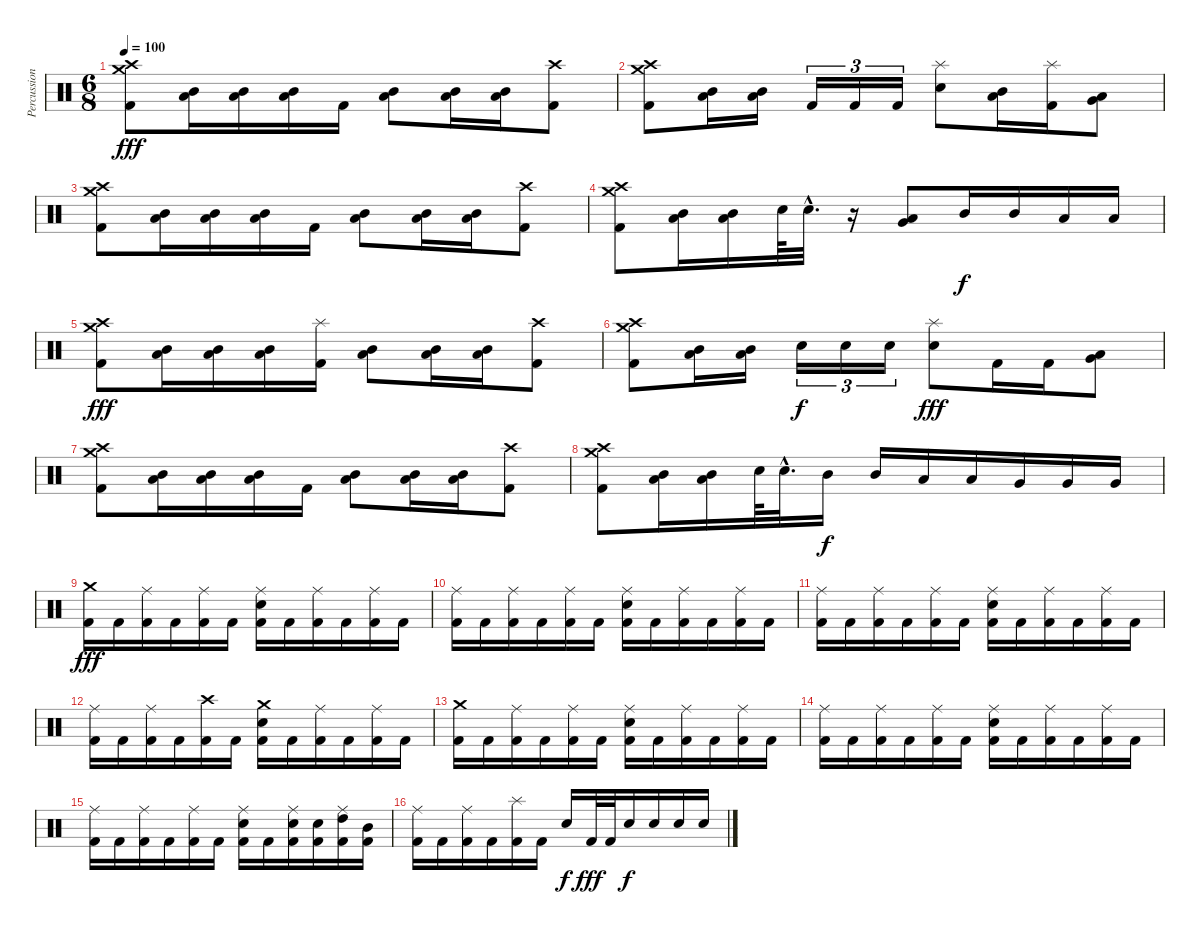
\track ("Percussion" "Percussion") {instrument percussion}
\staff {score}
\articulation defaults
\ts (6 8)
\tempo 100
\clef neutral
\ks c
("Crash medium (hit)" "Kick (hit) 2" "Crash high (hit)").8{dy fff} ("Mid Tom (hit)" "Low Floor Tom (hit)").16 ("Mid Tom (hit)" "Low Floor Tom (hit)").16 ("Mid Tom (hit)" "Low Floor Tom (hit)").16 "Kick (hit) 2".16 ("Mid Tom (hit)" "Low Floor Tom (hit)").8 ("Mid Tom (hit)" "Low Floor Tom (hit)").16 ("Mid Tom (hit)" "Low Floor Tom (hit)").16 ("Crash high (hit)" "Kick (hit) 2").8 |
("Crash medium (hit)" "Kick (hit) 2" "Crash high (hit)").8 ("Mid Tom (hit)" "Low Floor Tom (hit)").16 ("Mid Tom (hit)" "Low Floor Tom (hit)").16 "Kick (hit) 2".16{tu (3 2)} "Kick (hit) 2".16{tu (3 2)} "Kick (hit) 2".16{tu (3 2)} ("Splash (hit)" "Electric Snare (hit)").8 ("Mid Tom (hit)" "Low Floor Tom (hit)").16 ("Splash (hit)" "Kick (hit) 2").16 ("Very Low Tom (hit)" "Low Tom (hit)").8 |
("Crash medium (hit)" "Kick (hit) 2" "Crash high (hit)").8 ("Mid Tom (hit)" "Low Floor Tom (hit)").16 ("Mid Tom (hit)" "Low Floor Tom (hit)").16 ("Mid Tom (hit)" "Low Floor Tom (hit)").16 "Kick (hit) 2".16 ("Mid Tom (hit)" "Low Floor Tom (hit)").8 ("Mid Tom (hit)" "Low Floor Tom (hit)").16 ("Mid Tom (hit)" "Low Floor Tom (hit)").16 ("Crash high (hit)" "Kick (hit) 2").8 |
("Crash medium (hit)" "Kick (hit) 2" "Crash high (hit)").8 ("Mid Tom (hit)" "Low Floor Tom (hit)").16 ("Mid Tom (hit)" "Low Floor Tom (hit)").16 "Electric Snare (hit)".64 "Electric Snare (hit)"{hac}.32{d} r.16 ("Very Low Tom (hit)" "Low Tom (hit)").8 "Mid Tom (hit)".16{dy f} "Mid Tom (hit)".16 "Low Tom (hit)".16 "Low Tom (hit)".16 |
("Crash medium (hit)" "Kick (hit) 2" "Crash high (hit)").8{dy fff} ("Mid Tom (hit)" "Low Floor Tom (hit)").16 ("Mid Tom (hit)" "Low Floor Tom (hit)").16 ("Mid Tom (hit)" "Low Floor Tom (hit)").16 ("Splash (hit)" "Kick (hit) 2").16 ("Mid Tom (hit)" "Low Floor Tom (hit)").8 ("Mid Tom (hit)" "Low Floor Tom (hit)").16 ("Mid Tom (hit)" "Low Floor Tom (hit)").16 ("Crash high (hit)" "Kick (hit) 2").8 |
("Crash medium (hit)" "Kick (hit) 2" "Crash high (hit)").8 ("Mid Tom (hit)" "Low Floor Tom (hit)").16 ("Mid Tom (hit)" "Low Floor Tom (hit)").16 "Electric Snare (hit)".16{tu (3 2) dy f} "Electric Snare (hit)".16{tu (3 2)} "Electric Snare (hit)".16{tu (3 2)} ("Splash (hit)" "Electric Snare (hit)").8{dy fff} "Kick (hit) 2".16 "Kick (hit) 2".16 ("Very Low Tom (hit)" "Low Tom (hit)").8 |
("Crash medium (hit)" "Kick (hit) 2" "Crash high (hit)").8 ("Mid Tom (hit)" "Low Floor Tom (hit)").16 ("Mid Tom (hit)" "Low Floor Tom (hit)").16 ("Mid Tom (hit)" "Low Floor Tom (hit)").16 "Kick (hit) 2".16 ("Mid Tom (hit)" "Low Floor Tom (hit)").8 ("Mid Tom (hit)" "Low Floor Tom (hit)").16 ("Mid Tom (hit)" "Low Floor Tom (hit)").16 ("Crash high (hit)" "Kick (hit) 2").8 |
("Crash medium (hit)" "Kick (hit) 2" "Crash high (hit)").8 ("Mid Tom (hit)" "Low Floor Tom (hit)").16 ("Mid Tom (hit)" "Low Floor Tom (hit)").16 "Electric Snare (hit)".64 "Electric Snare (hit)"{hac}.32{d} "Mid Tom (hit)".16{dy f} "Mid Tom (hit)".16 "Low Tom (hit)".16 "Low Tom (hit)".16 "Very Low Tom (hit)".16 "Very Low Tom (hit)".16 "Very Low Tom (hit)".16 |
("Crash medium (hit)" "Kick (hit) 2").16{dy fff} "Kick (hit) 2".16 ("Ride (middle)" "Kick (hit) 2").16 "Kick (hit) 2".16 ("Ride (middle)" "Kick (hit) 2").16 "Kick (hit) 2".16 ("Ride (middle)" "Electric Snare (hit)" "Kick (hit) 2").16 "Kick (hit) 2".16 ("Ride (middle)" "Kick (hit) 2").16 "Kick (hit) 2".16 ("Ride (middle)" "Kick (hit) 2").16 "Kick (hit) 2".16 |
("Ride (middle)" "Kick (hit) 2").16 "Kick (hit) 2".16 ("Ride (middle)" "Kick (hit) 2").16 "Kick (hit) 2".16 ("Ride (middle)" "Kick (hit) 2").16 "Kick (hit) 2".16 ("Ride (middle)" "Electric Snare (hit)" "Kick (hit) 2").16 "Kick (hit) 2".16 ("Ride (middle)" "Kick (hit) 2").16 "Kick (hit) 2".16 ("Ride (middle)" "Kick (hit) 2").16 "Kick (hit) 2".16 |
("Ride (middle)" "Kick (hit) 2").16 "Kick (hit) 2".16 ("Ride (middle)" "Kick (hit) 2").16 "Kick (hit) 2".16 ("Ride (middle)" "Kick (hit) 2").16 "Kick (hit) 2".16 ("Ride (middle)" "Electric Snare (hit)" "Kick (hit) 2").16 "Kick (hit) 2".16 ("Ride (middle)" "Kick (hit) 2").16 "Kick (hit) 2".16 ("Ride (middle)" "Kick (hit) 2").16 "Kick (hit) 2".16 |
("Ride (middle)" "Kick (hit) 2").16 "Kick (hit) 2".16 ("Ride (middle)" "Kick (hit) 2").16 "Kick (hit) 2".16 ("Crash high (hit)" "Kick (hit) 2").16 "Kick (hit) 2".16 ("Crash medium (hit)" "Electric Snare (hit)" "Kick (hit) 2").16 "Kick (hit) 2".16 ("Ride (middle)" "Kick (hit) 2").16 "Kick (hit) 2".16 ("Ride (middle)" "Kick (hit) 2").16 "Kick (hit) 2".16 |
("Crash medium (hit)" "Kick (hit) 2").16 "Kick (hit) 2".16 ("Ride (middle)" "Kick (hit) 2").16 "Kick (hit) 2".16 ("Ride (middle)" "Kick (hit) 2").16 "Kick (hit) 2".16 ("Ride (middle)" "Electric Snare (hit)" "Kick (hit) 2").16 "Kick (hit) 2".16 ("Ride (middle)" "Kick (hit) 2").16 "Kick (hit) 2".16 ("Ride (middle)" "Kick (hit) 2").16 "Kick (hit) 2".16 |
("Ride (middle)" "Kick (hit) 2").16 "Kick (hit) 2".16 ("Ride (middle)" "Kick (hit) 2").16 "Kick (hit) 2".16 ("Ride (middle)" "Kick (hit) 2").16 "Kick (hit) 2".16 ("Ride (middle)" "Electric Snare (hit)" "Kick (hit) 2").16 "Kick (hit) 2".16 ("Ride (middle)" "Kick (hit) 2").16 "Kick (hit) 2".16 ("Ride (middle)" "Kick (hit) 2").16 "Kick (hit) 2".16 |
("Ride (middle)" "Kick (hit) 2").16 "Kick (hit) 2".16 ("Ride (middle)" "Kick (hit) 2").16 "Kick (hit) 2".16 ("Ride (middle)" "Kick (hit) 2").16 "Kick (hit) 2".16 ("Ride (middle)" "Electric Snare (hit)" "Kick (hit) 2").16 "Kick (hit) 2".16 ("Ride (middle)" "Electric Snare (hit)" "Kick (hit) 2").16 ("Electric Snare (hit)" "Kick (hit) 2").16 ("Ride (middle)" "High Tom (hit)" "Kick (hit) 2").16 ("Mid Tom (hit)" "Kick (hit) 2").16 |
("Ride (middle)" "Kick (hit) 2").16 "Kick (hit) 2".16 ("Ride (middle)" "Kick (hit) 2").16 "Kick (hit) 2".16 ("Splash (hit)" "Kick (hit) 2").16 "Kick (hit) 2".16 "Electric Snare (hit)".16{dy f} "Kick (hit) 2".32{dy fff} "Kick (hit) 2".32 "Electric Snare (hit)".16{dy f} "Electric Snare (hit)".16 "Electric Snare (hit)".16 "Electric Snare (hit)".16
